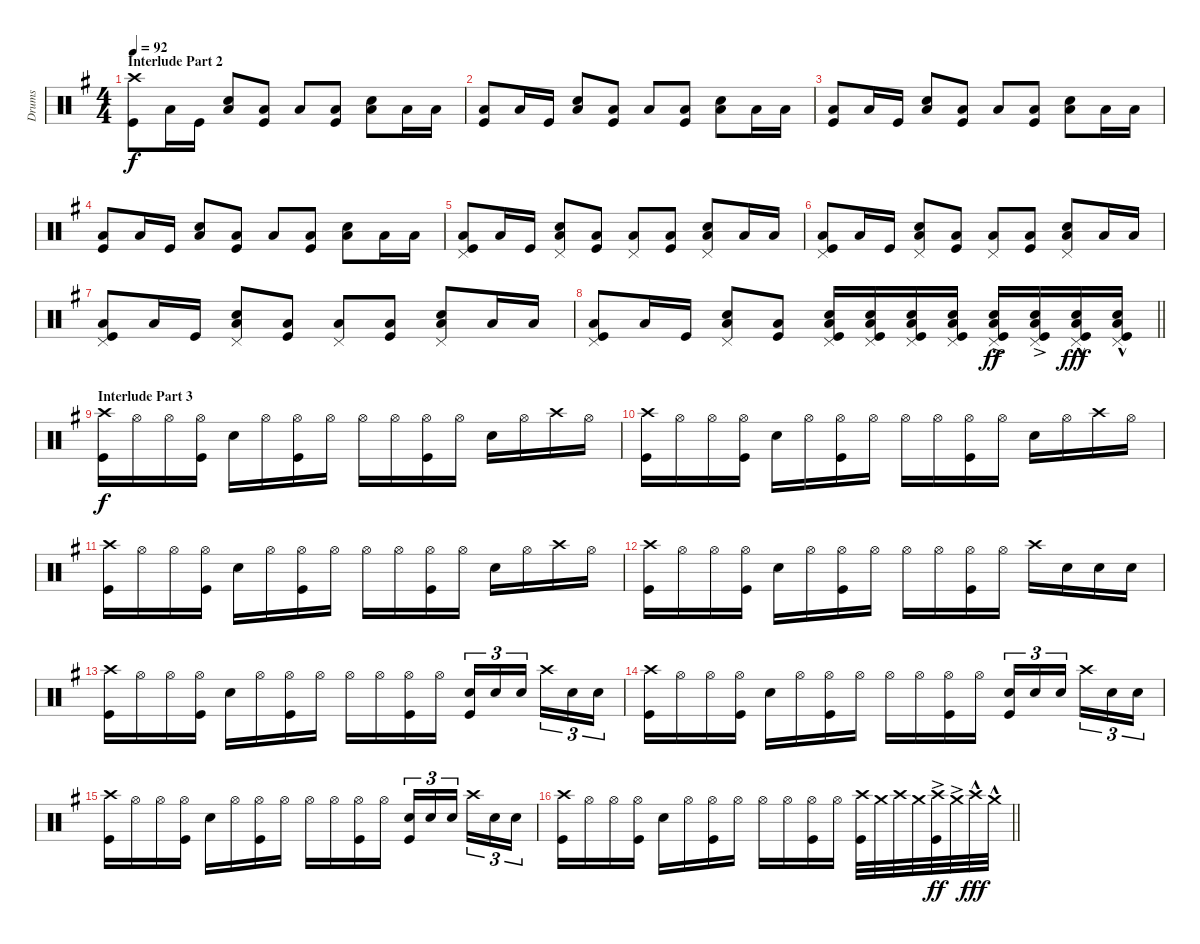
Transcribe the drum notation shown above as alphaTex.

\track ("Drums" "Drums") {instrument percussion}
\staff {score}
\articulation defaults
\ts (4 4)
\section ("" "Interlude Part 2")
\tempo 92
\clef neutral
\ks eminor
("Kick (hit)" "Crash high (hit)").8{dy f} "Low Tom (hit)".16 "Kick (hit)".16 ("Snare (hit) 2" "Low Tom (hit)").8 ("Kick (hit)" "Low Tom (hit)").8 "Low Tom (hit)".8 ("Kick (hit)" "Low Tom (hit)").8 ("Snare (hit) 2" "Low Tom (hit)").8 "Low Tom (hit)".16 "Low Tom (hit)".16 |
("Kick (hit)" "Low Tom (hit)").8 "Low Tom (hit)".16 "Kick (hit)".16 ("Snare (hit) 2" "Low Tom (hit)").8 ("Kick (hit)" "Low Tom (hit)").8 "Low Tom (hit)".8 ("Kick (hit)" "Low Tom (hit)").8 ("Snare (hit) 2" "Low Tom (hit)").8 "Low Tom (hit)".16 "Low Tom (hit)".16 |
("Kick (hit)" "Low Tom (hit)").8 "Low Tom (hit)".16 "Kick (hit)".16 ("Snare (hit) 2" "Low Tom (hit)").8 ("Kick (hit)" "Low Tom (hit)").8 "Low Tom (hit)".8 ("Kick (hit)" "Low Tom (hit)").8 ("Snare (hit) 2" "Low Tom (hit)").8 "Low Tom (hit)".16 "Low Tom (hit)".16 |
("Kick (hit)" "Low Tom (hit)").8 "Low Tom (hit)".16 "Kick (hit)".16 ("Snare (hit) 2" "Low Tom (hit)").8 ("Kick (hit)" "Low Tom (hit)").8 "Low Tom (hit)".8 ("Kick (hit)" "Low Tom (hit)").8 ("Snare (hit) 2" "Low Tom (hit)").8 "Low Tom (hit)".16 "Low Tom (hit)".16 |
("Pedal Hi-Hat (hit)" "Kick (hit)" "Low Tom (hit)").8 "Low Tom (hit)".16 "Kick (hit)".16 ("Pedal Hi-Hat (hit)" "Snare (hit) 2" "Low Tom (hit)").8 ("Kick (hit)" "Low Tom (hit)").8 ("Pedal Hi-Hat (hit)" "Low Tom (hit)").8 ("Kick (hit)" "Low Tom (hit)").8 ("Pedal Hi-Hat (hit)" "Snare (hit) 2" "Low Tom (hit)").8 "Low Tom (hit)".16 "Low Tom (hit)".16 |
("Pedal Hi-Hat (hit)" "Kick (hit)" "Low Tom (hit)").8 "Low Tom (hit)".16 "Kick (hit)".16 ("Pedal Hi-Hat (hit)" "Snare (hit) 2" "Low Tom (hit)").8 ("Kick (hit)" "Low Tom (hit)").8 ("Pedal Hi-Hat (hit)" "Low Tom (hit)").8 ("Kick (hit)" "Low Tom (hit)").8 ("Pedal Hi-Hat (hit)" "Snare (hit) 2" "Low Tom (hit)").8 "Low Tom (hit)".16 "Low Tom (hit)".16 |
("Pedal Hi-Hat (hit)" "Kick (hit)" "Low Tom (hit)").8 "Low Tom (hit)".16 "Kick (hit)".16 ("Pedal Hi-Hat (hit)" "Snare (hit) 2" "Low Tom (hit)").8 ("Kick (hit)" "Low Tom (hit)").8 ("Pedal Hi-Hat (hit)" "Low Tom (hit)").8 ("Kick (hit)" "Low Tom (hit)").8 ("Pedal Hi-Hat (hit)" "Snare (hit) 2" "Low Tom (hit)").8 "Low Tom (hit)".16 "Low Tom (hit)".16 |
\barLineRight lightlight
("Pedal Hi-Hat (hit)" "Kick (hit)" "Low Tom (hit)").8 "Low Tom (hit)".16 "Kick (hit)".16 ("Pedal Hi-Hat (hit)" "Snare (hit) 2" "Low Tom (hit)").8 ("Kick (hit)" "Low Tom (hit)").8 ("Pedal Hi-Hat (hit)" "Snare (hit) 2" "Kick (hit)" "Low Tom (hit)").16 ("Pedal Hi-Hat (hit)" "Snare (hit) 2" "Kick (hit)" "Low Tom (hit)").16 ("Pedal Hi-Hat (hit)" "Snare (hit) 2" "Kick (hit)" "Low Tom (hit)").16 ("Pedal Hi-Hat (hit)" "Snare (hit) 2" "Kick (hit)" "Low Tom (hit)").16 ("Pedal Hi-Hat (hit)"{ac} "Snare (hit) 2"{ac} "Kick (hit)"{ac} "Low Tom (hit)"{ac}).16{dy ff} ("Pedal Hi-Hat (hit)"{ac} "Snare (hit) 2"{ac} "Kick (hit)"{ac} "Low Tom (hit)"{ac}).16 ("Pedal Hi-Hat (hit)"{hac} "Snare (hit) 2"{hac} "Kick (hit)"{hac} "Low Tom (hit)"{hac}).16{dy fff} ("Pedal Hi-Hat (hit)"{hac} "Snare (hit) 2"{hac} "Kick (hit)"{hac} "Low Tom (hit)"{hac}).16 |
\section ("" "Interlude Part 3")
("Kick (hit)" "Crash high (hit)").16{dy f} "Hi-Hat (open)".16 "Hi-Hat (open)".16 ("Kick (hit)" "Hi-Hat (open)").16 "Snare (hit) 2".16 "Hi-Hat (open)".16 ("Kick (hit)" "Hi-Hat (open)").16 "Hi-Hat (open)".16 "Hi-Hat (open)".16 "Hi-Hat (open)".16 ("Kick (hit)" "Hi-Hat (open)").16 "Hi-Hat (open)".16 "Snare (hit) 2".16 "Hi-Hat (open)".16 "Crash high (hit)".16 "Hi-Hat (open)".16 |
("Kick (hit)" "Crash high (hit)").16 "Hi-Hat (open)".16 "Hi-Hat (open)".16 ("Kick (hit)" "Hi-Hat (open)").16 "Snare (hit) 2".16 "Hi-Hat (open)".16 ("Kick (hit)" "Hi-Hat (open)").16 "Hi-Hat (open)".16 "Hi-Hat (open)".16 "Hi-Hat (open)".16 ("Kick (hit)" "Hi-Hat (open)").16 "Hi-Hat (open)".16 "Snare (hit) 2".16 "Hi-Hat (open)".16 "Crash high (hit)".16 "Hi-Hat (open)".16 |
("Kick (hit)" "Crash high (hit)").16 "Hi-Hat (open)".16 "Hi-Hat (open)".16 ("Kick (hit)" "Hi-Hat (open)").16 "Snare (hit) 2".16 "Hi-Hat (open)".16 ("Kick (hit)" "Hi-Hat (open)").16 "Hi-Hat (open)".16 "Hi-Hat (open)".16 "Hi-Hat (open)".16 ("Kick (hit)" "Hi-Hat (open)").16 "Hi-Hat (open)".16 "Snare (hit) 2".16 "Hi-Hat (open)".16 "Crash high (hit)".16 "Hi-Hat (open)".16 |
("Kick (hit)" "Crash high (hit)").16 "Hi-Hat (open)".16 "Hi-Hat (open)".16 ("Kick (hit)" "Hi-Hat (open)").16 "Snare (hit) 2".16 "Hi-Hat (open)".16 ("Kick (hit)" "Hi-Hat (open)").16 "Hi-Hat (open)".16 "Hi-Hat (open)".16 "Hi-Hat (open)".16 ("Kick (hit)" "Hi-Hat (open)").16 "Hi-Hat (open)".16 "Crash high (hit)".16 "Snare (hit) 2".16 "Snare (hit) 2".16 "Snare (hit) 2".16 |
("Kick (hit)" "Crash high (hit)").16 "Hi-Hat (open)".16 "Hi-Hat (open)".16 ("Kick (hit)" "Hi-Hat (open)").16 "Snare (hit) 2".16 "Hi-Hat (open)".16 ("Kick (hit)" "Hi-Hat (open)").16 "Hi-Hat (open)".16 "Hi-Hat (open)".16 "Hi-Hat (open)".16 ("Kick (hit)" "Hi-Hat (open)").16 "Hi-Hat (open)".16 ("Snare (hit) 2" "Kick (hit)").16{tu (3 2)} "Snare (hit) 2".16{tu (3 2)} "Snare (hit) 2".16{tu (3 2) beam splitsecondary} "Crash high (hit)".16{tu (3 2)} "Snare (hit) 2".16{tu (3 2)} "Snare (hit) 2".16{tu (3 2)} |
("Kick (hit)" "Crash high (hit)").16 "Hi-Hat (open)".16 "Hi-Hat (open)".16 ("Kick (hit)" "Hi-Hat (open)").16 "Snare (hit) 2".16 "Hi-Hat (open)".16 ("Kick (hit)" "Hi-Hat (open)").16 "Hi-Hat (open)".16 "Hi-Hat (open)".16 "Hi-Hat (open)".16 ("Kick (hit)" "Hi-Hat (open)").16 "Hi-Hat (open)".16 ("Snare (hit) 2" "Kick (hit)").16{tu (3 2)} "Snare (hit) 2".16{tu (3 2)} "Snare (hit) 2".16{tu (3 2) beam splitsecondary} "Crash high (hit)".16{tu (3 2)} "Snare (hit) 2".16{tu (3 2)} "Snare (hit) 2".16{tu (3 2)} |
("Kick (hit)" "Crash high (hit)").16 "Hi-Hat (open)".16 "Hi-Hat (open)".16 ("Kick (hit)" "Hi-Hat (open)").16 "Snare (hit) 2".16 "Hi-Hat (open)".16 ("Kick (hit)" "Hi-Hat (open)").16 "Hi-Hat (open)".16 "Hi-Hat (open)".16 "Hi-Hat (open)".16 ("Kick (hit)" "Hi-Hat (open)").16 "Hi-Hat (open)".16 ("Snare (hit) 2" "Kick (hit)").16{tu (3 2)} "Snare (hit) 2".16{tu (3 2)} "Snare (hit) 2".16{tu (3 2) beam splitsecondary} "Crash high (hit)".16{tu (3 2)} "Snare (hit) 2".16{tu (3 2)} "Snare (hit) 2".16{tu (3 2)} |
\barLineRight lightlight
("Kick (hit)" "Crash high (hit)").16 "Hi-Hat (open)".16 "Hi-Hat (open)".16 ("Kick (hit)" "Hi-Hat (open)").16 "Snare (hit) 2".16 "Hi-Hat (open)".16 ("Kick (hit)" "Hi-Hat (open)").16 "Hi-Hat (open)".16 "Hi-Hat (open)".16 "Hi-Hat (open)".16 ("Kick (hit)" "Hi-Hat (open)").16 "Hi-Hat (open)".16 ("Crash high (hit)" "Kick (hit)").32 "Crash medium (hit)".32 "Crash high (hit)".32 "Crash medium (hit)".32 ("Crash high (hit)"{ac} "Kick (hit)").32{dy ff} "Crash medium (hit)"{ac}.32 "Crash high (hit)"{hac}.32{dy fff} "Crash medium (hit)"{hac}.32
